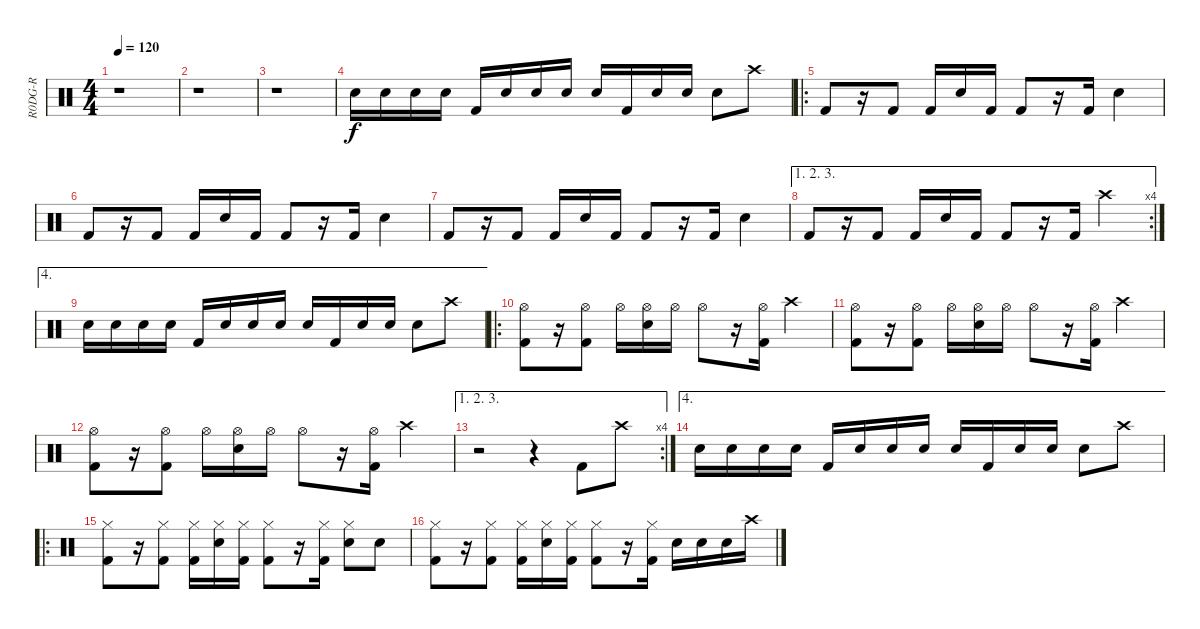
\track ("R0DG-R" "R0DG-R") {instrument percussion}
\staff {score}
\articulation defaults
\ts (4 4)
\tempo 120
\clef neutral
\ks c
r.1{dy f} |
r.1 |
r.1 |
"Electric Snare (hit)".16 "Electric Snare (hit)".16 "Electric Snare (hit)".16 "Electric Snare (hit)".16 "Kick (hit) 2".16 "Electric Snare (hit)".16 "Electric Snare (hit)".16 "Electric Snare (hit)".16 "Electric Snare (hit)".16 "Kick (hit) 2".16 "Electric Snare (hit)".16 "Electric Snare (hit)".16 "Electric Snare (hit)".8 "Crash high (hit)".8 |
\ro "Kick (hit) 2".8
r.16 "Kick (hit) 2".8 "Kick (hit) 2".16 "Electric Snare (hit)".16 "Kick (hit) 2".16 "Kick (hit) 2".8 r.16 "Kick (hit) 2".16 "Electric Snare (hit)".4 |
"Kick (hit) 2".8 r.16 "Kick (hit) 2".8 "Kick (hit) 2".16 "Electric Snare (hit)".16 "Kick (hit) 2".16 "Kick (hit) 2".8 r.16 "Kick (hit) 2".16 "Electric Snare (hit)".4 |
"Kick (hit) 2".8 r.16 "Kick (hit) 2".8 "Kick (hit) 2".16 "Electric Snare (hit)".16 "Kick (hit) 2".16 "Kick (hit) 2".8 r.16 "Kick (hit) 2".16 "Electric Snare (hit)".4 |
\ae (1 2 3)
\rc 4 "Kick (hit) 2".8
r.16 "Kick (hit) 2".8 "Kick (hit) 2".16 "Electric Snare (hit)".16 "Kick (hit) 2".16 "Kick (hit) 2".8 r.16 "Kick (hit) 2".16 "Crash high (hit)".4 |
\ae 4 "Electric Snare (hit)".16 "Electric Snare (hit)".16 "Electric Snare (hit)".16 "Electric Snare (hit)".16 "Kick (hit) 2".16 "Electric Snare (hit)".16 "Electric Snare (hit)".16 "Electric Snare (hit)".16 "Electric Snare (hit)".16 "Kick (hit) 2".16 "Electric Snare (hit)".16 "Electric Snare (hit)".16 "Electric Snare (hit)".8 "Crash high (hit)".8
|
\ro
("Hi-Hat (open)" "Kick (hit) 2").8 r.16 ("Hi-Hat (open)" "Kick (hit) 2").8 "Hi-Hat (open)".16 ("Hi-Hat (open)" "Electric Snare (hit)").16 "Hi-Hat (open)".16 "Hi-Hat (open)".8 r.16 ("Hi-Hat (open)" "Kick (hit) 2").16 "Crash high (hit)".4 |
("Hi-Hat (open)" "Kick (hit) 2").8 r.16 ("Hi-Hat (open)" "Kick (hit) 2").8 "Hi-Hat (open)".16 ("Hi-Hat (open)" "Electric Snare (hit)").16 "Hi-Hat (open)".16 "Hi-Hat (open)".8 r.16 ("Hi-Hat (open)" "Kick (hit) 2").16 "Crash high (hit)".4 |
("Hi-Hat (open)" "Kick (hit) 2").8 r.16 ("Hi-Hat (open)" "Kick (hit) 2").8 "Hi-Hat (open)".16 ("Hi-Hat (open)" "Electric Snare (hit)").16 "Hi-Hat (open)".16 "Hi-Hat (open)".8 r.16 ("Hi-Hat (open)" "Kick (hit) 2").16 "Crash high (hit)".4 |
\ae (1 2 3)
\rc 4
r.2 r.4 "Kick (hit) 2".8 "Crash high (hit)".8 |
\ae 4 "Electric Snare (hit)".16 "Electric Snare (hit)".16 "Electric Snare (hit)".16 "Electric Snare (hit)".16 "Kick (hit) 2".16 "Electric Snare (hit)".16 "Electric Snare (hit)".16 "Electric Snare (hit)".16 "Electric Snare (hit)".16 "Kick (hit) 2".16 "Electric Snare (hit)".16 "Electric Snare (hit)".16 "Electric Snare (hit)".8 "Crash high (hit)".8
|
\ro
("Hi-Hat (closed)" "Kick (hit) 2").8 r.16 ("Hi-Hat (closed)" "Kick (hit) 2").8 ("Hi-Hat (closed)" "Kick (hit) 2").16 ("Hi-Hat (closed)" "Electric Snare (hit)").16 ("Hi-Hat (closed)" "Kick (hit) 2").16 ("Hi-Hat (closed)" "Kick (hit) 2").8 r.16 ("Hi-Hat (closed)" "Kick (hit) 2").16 ("Hi-Hat (closed)" "Electric Snare (hit)").8 "Electric Snare (hit)".8 |
("Hi-Hat (closed)" "Kick (hit) 2").8 r.16 ("Hi-Hat (closed)" "Kick (hit) 2").8 ("Hi-Hat (closed)" "Kick (hit) 2").16 ("Hi-Hat (closed)" "Electric Snare (hit)").16 ("Hi-Hat (closed)" "Kick (hit) 2").16 ("Hi-Hat (closed)" "Kick (hit) 2").8 r.16 ("Hi-Hat (closed)" "Kick (hit) 2").16 "Electric Snare (hit)".16 "Electric Snare (hit)".16 "Electric Snare (hit)".16 "Crash high (hit)".16
